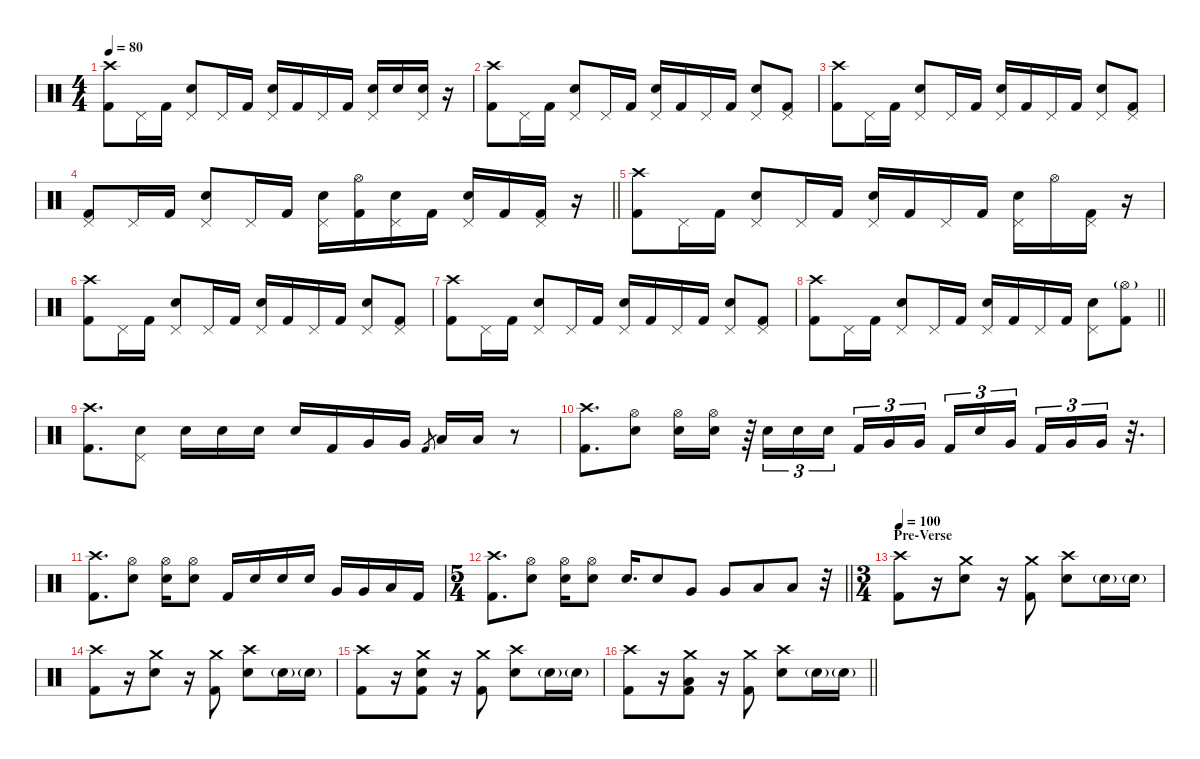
\defaultSystemsLayout 4
\hideDynamics
\bracketExtendMode nobrackets
\singleTrackTrackNamePolicy hidden
\multiTrackTrackNamePolicy hidden
\firstSystemTrackNameMode fullname
\firstSystemTrackNameOrientation horizontal
\otherSystemsTrackNameOrientation horizontal
\track ("Bill Ward - Drums" "drm.") {instrument percussion}
\staff {score}
\articulation defaults
\ts (4 4)
\section ("" "")
\tempo 80
\clef neutral
\ks c
("Crash high (hit)" "Kick (hit) 2").8{dy f} "Pedal Hi-Hat (hit)".16 "Kick (hit) 2".16 ("Pedal Hi-Hat (hit)" "Snare (hit) 2").8 "Pedal Hi-Hat (hit)".16 "Kick (hit) 2".16 ("Pedal Hi-Hat (hit)" "Snare (hit) 2").16 "Kick (hit) 2".16 "Pedal Hi-Hat (hit)".16 "Kick (hit) 2".16 ("Pedal Hi-Hat (hit)" "Snare (hit) 2").16 "Snare (hit) 2".16 ("Pedal Hi-Hat (hit)" "Snare (hit) 2").16 r.16 |
("Crash high (hit)" "Kick (hit) 2").8 "Pedal Hi-Hat (hit)".16 "Kick (hit) 2".16 ("Pedal Hi-Hat (hit)" "Snare (hit) 2").8 "Pedal Hi-Hat (hit)".16 "Kick (hit) 2".16 ("Pedal Hi-Hat (hit)" "Snare (hit) 2").16 "Kick (hit) 2".16 "Pedal Hi-Hat (hit)".16 "Kick (hit) 2".16 ("Pedal Hi-Hat (hit)" "Snare (hit) 2").8 ("Pedal Hi-Hat (hit)" "Kick (hit) 2").8 |
("Crash high (hit)" "Kick (hit) 2").8 "Pedal Hi-Hat (hit)".16 "Kick (hit) 2".16 ("Pedal Hi-Hat (hit)" "Snare (hit) 2").8 "Pedal Hi-Hat (hit)".16 "Kick (hit) 2".16 ("Pedal Hi-Hat (hit)" "Snare (hit) 2").16 "Kick (hit) 2".16 "Pedal Hi-Hat (hit)".16 "Kick (hit) 2".16 ("Pedal Hi-Hat (hit)" "Snare (hit) 2").8 ("Pedal Hi-Hat (hit)" "Kick (hit) 2").8 |
\barLineRight lightlight
("Pedal Hi-Hat (hit)" "Kick (hit) 2").8 "Pedal Hi-Hat (hit)".16 "Kick (hit) 2".16 ("Pedal Hi-Hat (hit)" "Snare (hit) 2").8 "Pedal Hi-Hat (hit)".16 "Kick (hit) 2".16 ("Pedal Hi-Hat (hit)" "Snare (hit) 2").16 ("Hi-Hat (open)" "Kick (hit) 2").16 ("Pedal Hi-Hat (hit)" "Snare (hit) 2").16 "Kick (hit) 2".16 ("Pedal Hi-Hat (hit)" "Snare (hit) 2").16 "Kick (hit) 2".16 ("Pedal Hi-Hat (hit)" "Kick (hit) 2").16 r.16 |
("Crash high (hit)" "Kick (hit) 2").8 "Pedal Hi-Hat (hit)".16 "Kick (hit) 2".16 ("Pedal Hi-Hat (hit)" "Snare (hit) 2").8 "Pedal Hi-Hat (hit)".16 "Kick (hit) 2".16 ("Pedal Hi-Hat (hit)" "Snare (hit) 2").16 "Kick (hit) 2".16 "Pedal Hi-Hat (hit)".16 "Kick (hit) 2".16 ("Pedal Hi-Hat (hit)" "Snare (hit) 2").16 "Hi-Hat (open)".16 ("Pedal Hi-Hat (hit)" "Kick (hit) 2").16 r.16 |
("Crash high (hit)" "Kick (hit) 2").8 "Pedal Hi-Hat (hit)".16 "Kick (hit) 2".16 ("Pedal Hi-Hat (hit)" "Snare (hit) 2").8 "Pedal Hi-Hat (hit)".16 "Kick (hit) 2".16 ("Pedal Hi-Hat (hit)" "Snare (hit) 2").16 "Kick (hit) 2".16 "Pedal Hi-Hat (hit)".16 "Kick (hit) 2".16 ("Pedal Hi-Hat (hit)" "Snare (hit) 2").8 ("Pedal Hi-Hat (hit)" "Kick (hit) 2").8 |
("Crash high (hit)" "Kick (hit) 2").8 "Pedal Hi-Hat (hit)".16 "Kick (hit) 2".16 ("Pedal Hi-Hat (hit)" "Snare (hit) 2").8 "Pedal Hi-Hat (hit)".16 "Kick (hit) 2".16 ("Pedal Hi-Hat (hit)" "Snare (hit) 2").16 "Kick (hit) 2".16 "Pedal Hi-Hat (hit)".16 "Kick (hit) 2".16 ("Pedal Hi-Hat (hit)" "Snare (hit) 2").8 ("Pedal Hi-Hat (hit)" "Kick (hit) 2").8 |
\barLineRight lightlight
("Crash high (hit)" "Kick (hit) 2").8 "Pedal Hi-Hat (hit)".16 "Kick (hit) 2".16 ("Pedal Hi-Hat (hit)" "Snare (hit) 2").8 "Pedal Hi-Hat (hit)".16 "Kick (hit) 2".16 ("Pedal Hi-Hat (hit)" "Snare (hit) 2").16 "Kick (hit) 2".16 "Pedal Hi-Hat (hit)".16 "Kick (hit) 2".16 ("Pedal Hi-Hat (hit)" "Snare (hit) 2").8 ("Hi-Hat (open)"{g} "Kick (hit) 2").8 |
("Crash high (hit)" "Kick (hit) 2").8{d} ("Pedal Hi-Hat (hit)" "Snare (hit) 2").8 "Snare (hit) 2".16 "Snare (hit) 2".16 "Snare (hit) 2".16 "Snare (hit) 2".16 "Kick (hit) 2".16 "Very Low Tom (hit)".16 "Very Low Tom (hit)".16 "Kick (hit) 2".8{gr dy mf} "Low Floor Tom (hit)".16{dy f} "Low Floor Tom (hit)".16 r.8 |
("Crash high (hit)" "Kick (hit) 2").8{d} ("Hi-Hat (open)" "Snare (hit) 2").8 ("Hi-Hat (open)" "Snare (hit) 2").16 ("Hi-Hat (open)" "Snare (hit) 2").16 r.64 "Snare (hit) 2".16{tu (3 2)} "Snare (hit) 2".16{tu (3 2)} "Snare (hit) 2".16{tu (3 2)} "Kick (hit) 2".16{tu (3 2)} "Very Low Tom (hit)".16{tu (3 2)} "Very Low Tom (hit)".16{tu (3 2)} "Kick (hit) 2".16{tu (3 2)} "Snare (hit) 2".16{tu (3 2)} "Very Low Tom (hit)".16{tu (3 2)} "Kick (hit) 2".16{tu (3 2)} "Very Low Tom (hit)".16{tu (3 2)} "Very Low Tom (hit)".16{tu (3 2)} r.32{d} |
("Crash high (hit)" "Kick (hit) 2").8{d} ("Hi-Hat (open)" "Snare (hit) 2").8 ("Hi-Hat (open)" "Snare (hit) 2").16 ("Hi-Hat (open)" "Snare (hit) 2").8 "Kick (hit) 2".16 "Snare (hit) 2".16 "Snare (hit) 2".16 "Snare (hit) 2".16 "Very Low Tom (hit)".16 "Very Low Tom (hit)".16 "Low Floor Tom (hit)".16 "Kick (hit) 2".16 |
\ts (5 4)
\beaming (8 2 2 2 4)
\barLineRight lightlight
("Crash high (hit)" "Kick (hit) 2").8{d} ("Hi-Hat (open)" "Snare (hit) 2").8 ("Hi-Hat (open)" "Snare (hit) 2").16 ("Hi-Hat (open)" "Snare (hit) 2").8 "Snare (hit) 2".16{d} "Snare (hit) 2".8 "Very Low Tom (hit)".8 "Very Low Tom (hit)".8 "Low Floor Tom (hit)".8 "Low Floor Tom (hit)".8 r.32 |
\ts (3 4)
\beaming (8 2 2 2)
\section ("" "Pre-Verse")
\tempo 100
("Crash high (hit)" "Kick (hit) 2").8 r.16 ("Crash medium (hit)" "Snare (hit) 2").8 r.16 ("Crash medium (hit)" "Kick (hit) 2").8 ("Crash high (hit)" "Snare (hit) 2").8 "Snare (hit) 2"{g}.16{dy mf} "Snare (hit) 2"{g}.16 |
("Crash high (hit)" "Kick (hit) 2").8{dy f} r.16 ("Crash medium (hit)" "Snare (hit) 2").8 r.16 ("Crash medium (hit)" "Kick (hit) 2").8 ("Crash high (hit)" "Snare (hit) 2").8 "Snare (hit) 2"{g}.16{dy mf} "Snare (hit) 2"{g}.16 |
("Crash high (hit)" "Kick (hit) 2").8{dy f} r.16 ("Crash medium (hit)" "Snare (hit) 2" "Kick (hit) 2").8 r.16 ("Crash medium (hit)" "Kick (hit) 2").8 ("Crash high (hit)" "Snare (hit) 2").8 "Snare (hit) 2"{g}.16{dy mf} "Snare (hit) 2"{g}.16 |
\barLineRight lightlight
("Crash high (hit)" "Kick (hit) 2").8{dy f} r.16 ("Crash medium (hit)" "Low Floor Tom (hit)" "Kick (hit) 2").8 r.16 ("Crash medium (hit)" "Kick (hit) 2").8 ("Crash high (hit)" "Snare (hit) 2").8 "Snare (hit) 2"{g}.16{dy mf} "Snare (hit) 2"{g}.16
